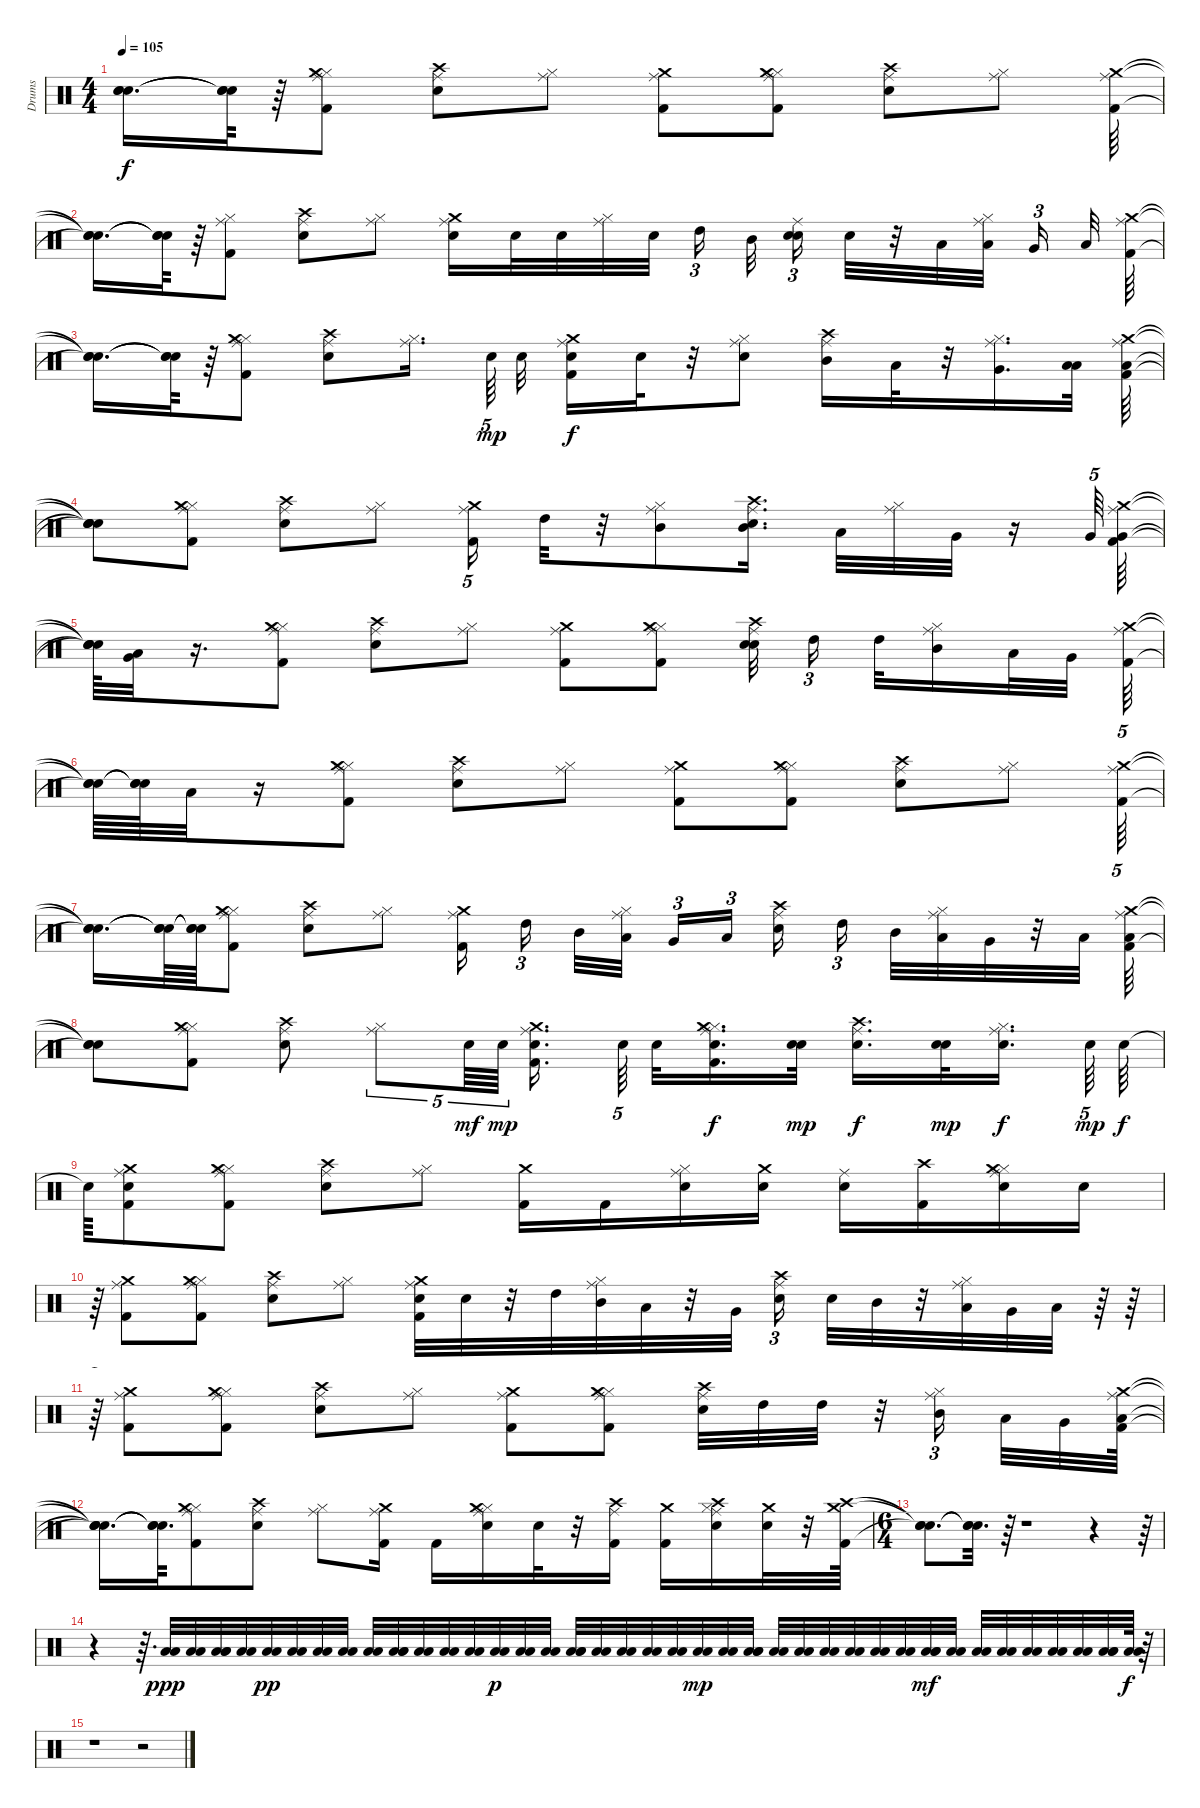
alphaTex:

\track ("Drums" "Drums") {instrument percussion}
\staff {score}
\articulation defaults
\ts (4 4)
\tempo 105
\clef neutral
\ks c
("Snare (hit)"{t} "Snare (hit)"{t} "Snare (hit)"{t}).16{d dy f} ("Snare (hit)"{t} "Snare (hit)"{t} "Snare (hit)"{t}).64 r.64 ("Ride (middle)" "Hi-Hat (closed)" "Crash medium (hit)" "Kick (hit) 2").8 ("Ride (middle)" "Crash high (hit)" "Electric Snare (hit)").8 ("Hi-Hat (closed)" "Ride (middle)").8 ("Ride (middle)" "Kick (hit) 2" "Crash medium (hit)").8 ("Hi-Hat (closed)" "Ride (middle)" "Kick (hit) 2" "Crash medium (hit)").8 ("Ride (middle)" "Electric Snare (hit)" "Crash high (hit)").8 ("Hi-Hat (closed)" "Ride (middle)").8 ("Ride (middle)" "Crash medium (hit)" "Kick (hit) 2").64 |
("Snare (hit)"{t} "Snare (hit)"{t} "Snare (hit)"{t}).16{d} ("Snare (hit)"{t} "Snare (hit)"{t} "Snare (hit)"{t}).64 r.64 ("Ride (middle)" "Hi-Hat (closed)" "Kick (hit) 2").8 ("Ride (middle)" "Crash high (hit)" "Electric Snare (hit)").8 ("Hi-Hat (closed)" "Ride (middle)").8 ("Ride (middle)" "Crash medium (hit)" "Electric Snare (hit)").16 "Electric Snare (hit)".32 "Electric Snare (hit)".32 ("Hi-Hat (closed)" "Ride (middle)").32 "Electric Snare (hit)".32 "High Tom (hit)".16{tu (3 2)} "Mid Tom (hit)".32 ("Electric Snare (hit)" "Ride (middle)" "Electric Snare (hit)").16{tu (3 2)} "Electric Snare (hit)".32 r.32 "Low Tom (hit)".32 ("Hi-Hat (closed)" "Ride (middle)" "Low Tom (hit)").32 "Very Low Tom (hit)".16{tu (3 2)} "Low Floor Tom (hit)".32 ("Ride (middle)" "Crash medium (hit)" "Kick (hit) 2").64 |
("Snare (hit)"{t} "Snare (hit)"{t} "Snare (hit)"{t}).16{d} ("Snare (hit)"{t} "Snare (hit)"{t} "Snare (hit)"{t}).64 r.64 ("Ride (middle)" "Hi-Hat (closed)" "Crash medium (hit)" "Kick (hit) 2").8 ("Ride (middle)" "Crash high (hit)" "Electric Snare (hit)").8 ("Hi-Hat (closed)" "Ride (middle)").16{d} "Electric Snare (hit)".64{tu (5 4) dy mp} "Electric Snare (hit)".32 ("Electric Snare (hit)" "Ride (middle)" "Kick (hit) 2" "Crash medium (hit)").16{dy f} "Electric Snare (hit)".32 r.32 ("Hi-Hat (closed)" "Ride (middle)" "Electric Snare (hit)").8 ("Mid Tom (hit)" "Ride (middle)" "Crash high (hit)").16 "Low Tom (hit)".32 r.32 ("Hi-Hat (closed)" "Ride (middle)" "Very Low Tom (hit)").16{d} ("Low Floor Tom (hit)" "Low Floor Tom (hit)").32 ("Low Floor Tom (hit)" "Ride (middle)" "Crash medium (hit)" "Kick (hit) 2").64 |
("Snare (hit)"{t} "Snare (hit)"{t} "Snare (hit)"{t} "Snare (hit)"{t}).8 ("Ride (middle)" "Hi-Hat (closed)" "Crash medium (hit)" "Kick (hit) 2").8 ("Ride (middle)" "Crash high (hit)" "Electric Snare (hit)").8 ("Hi-Hat (closed)" "Ride (middle)").8 ("Ride (middle)" "Kick (hit) 2" "Crash medium (hit)").16{tu (5 4)} "High Tom (hit)".32 r.32 ("Mid Tom (hit)" "Hi-Hat (closed)" "Ride (middle)").8 ("Mid Tom (hit)" "Ride (middle)" "Electric Snare (hit)" "Crash high (hit)").16{d} "Low Tom (hit)".32 ("Hi-Hat (closed)" "Ride (middle)").32 "Very Low Tom (hit)".32 r.16 "Very Low Tom (hit)".64{tu (5 4)} ("Very Low Tom (hit)" "Ride (middle)" "Crash medium (hit)" "Kick (hit) 2").64 |
("Snare (hit)"{t} "Snare (hit)"{t} "Snare (hit)"{t} "Snare (hit)"{t}).64 ("Low Floor Tom (hit)" "Very Low Tom (hit)").32 r.16{d} ("Ride (middle)" "Hi-Hat (closed)" "Crash medium (hit)" "Kick (hit) 2").8 ("Ride (middle)" "Crash high (hit)" "Electric Snare (hit)").8 ("Hi-Hat (closed)" "Ride (middle)").8 ("Ride (middle)" "Kick (hit) 2" "Crash medium (hit)").8 ("Hi-Hat (closed)" "Ride (middle)" "Kick (hit) 2" "Crash medium (hit)").8 ("Electric Snare (hit)" "Ride (middle)" "Electric Snare (hit)" "Crash high (hit)").32 "High Tom (hit)".16{tu (3 2)} "High Tom (hit)".32 ("Mid Tom (hit)" "Hi-Hat (closed)" "Ride (middle)").16 "Low Tom (hit)".32 "Very Low Tom (hit)".32 ("Ride (middle)" "Crash medium (hit)" "Kick (hit) 2").64{tu (5 4)} |
("Snare (hit)"{t} "Snare (hit)"{t} "Snare (hit)"{t}).64 ("Snare (hit)"{t} "Snare (hit)"{t} "Snare (hit)"{t}).64 "Low Floor Tom (hit)".32 r.16 ("Ride (middle)" "Hi-Hat (closed)" "Crash medium (hit)" "Kick (hit) 2").8 ("Ride (middle)" "Crash high (hit)" "Electric Snare (hit)").8 ("Hi-Hat (closed)" "Ride (middle)").8 ("Ride (middle)" "Kick (hit) 2" "Crash medium (hit)").8 ("Hi-Hat (closed)" "Ride (middle)" "Kick (hit) 2" "Crash medium (hit)").8 ("Ride (middle)" "Electric Snare (hit)" "Crash high (hit)").8 ("Hi-Hat (closed)" "Ride (middle)").8 ("Ride (middle)" "Crash medium (hit)" "Kick (hit) 2").64{tu (5 4)} |
("Snare (hit)"{t} "Snare (hit)"{t} "Snare (hit)"{t}).16{d} ("Snare (hit)"{t} "Snare (hit)"{t} "Snare (hit)"{t}).64 ("Snare (hit)"{t} "Snare (hit)"{t} "Snare (hit)"{t}).64 ("Ride (middle)" "Hi-Hat (closed)" "Crash medium (hit)" "Kick (hit) 2").8 ("Ride (middle)" "Crash high (hit)" "Electric Snare (hit)").8 ("Hi-Hat (closed)" "Ride (middle)").8 ("Ride (middle)" "Kick (hit) 2" "Crash medium (hit)").16 "High Tom (hit)".16{tu (3 2)} "Mid Tom (hit)".32 ("Hi-Hat (closed)" "Ride (middle)" "Low Tom (hit)").32 "Very Low Tom (hit)".16{tu (3 2)} "Low Floor Tom (hit)".16{tu (3 2)} ("Ride (middle)" "Electric Snare (hit)" "Crash high (hit)").16 "High Tom (hit)".16{tu (3 2)} "Mid Tom (hit)".32 ("Hi-Hat (closed)" "Ride (middle)" "Low Tom (hit)").32 "Very Low Tom (hit)".32 r.32 "Low Floor Tom (hit)".32 ("Ride (middle)" "Crash medium (hit)" "Kick (hit) 2" "Low Floor Tom (hit)").64 |
("Snare (hit)"{t} "Snare (hit)"{t} "Snare (hit)"{t}).8 ("Ride (middle)" "Hi-Hat (closed)" "Crash medium (hit)" "Kick (hit) 2").8 ("Ride (middle)" "Crash high (hit)" "Electric Snare (hit)").8 ("Hi-Hat (closed)" "Ride (middle)").8{tu (5 4)} "Electric Snare (hit)".64{tu (5 4) dy mf} "Electric Snare (hit)".64{tu (5 4) dy mp} ("Ride (middle)" "Kick (hit) 2" "Crash medium (hit)" "Electric Snare (hit)").16{d} "Electric Snare (hit)".64{tu (5 4)} "Electric Snare (hit)".32 ("Electric Snare (hit)" "Hi-Hat (closed)" "Ride (middle)" "Kick (hit) 2" "Crash medium (hit)").16{d dy f} ("Electric Snare (hit)" "Electric Snare (hit)").32{dy mp} ("Electric Snare (hit)" "Ride (middle)" "Crash high (hit)").16{d dy f} ("Electric Snare (hit)" "Electric Snare (hit)").32{dy mp} ("Electric Snare (hit)" "Hi-Hat (closed)" "Ride (middle)").16{d dy f} "Electric Snare (hit)".64{tu (5 4) dy mp} "Electric Snare (hit)".64{dy f} |
"Snare (hit)"{t}.64 ("Ride (middle)" "Crash medium (hit)" "Kick (hit) 2" "Electric Snare (hit)").8 ("Ride (middle)" "Hi-Hat (closed)" "Crash medium (hit)" "Kick (hit) 2").8 ("Ride (middle)" "Crash high (hit)" "Electric Snare (hit)").8 ("Hi-Hat (closed)" "Ride (middle)").8 ("Kick (hit) 2" "Crash medium (hit)").16 "Kick (hit) 2".16 ("Hi-Hat (closed)" "Ride (middle)" "Electric Snare (hit)").16 ("Crash medium (hit)" "Electric Snare (hit)").16 ("Ride (middle)" "Electric Snare (hit)").16 ("Crash high (hit)" "Kick (hit) 2").16 ("Hi-Hat (closed)" "Ride (middle)" "Electric Snare (hit)" "Crash medium (hit)").16 "Electric Snare (hit)".16 |
r.64 ("Ride (middle)" "Crash medium (hit)" "Kick (hit) 2").8 ("Ride (middle)" "Hi-Hat (closed)" "Crash medium (hit)" "Kick (hit) 2").8 ("Ride (middle)" "Crash high (hit)" "Electric Snare (hit)").8 ("Hi-Hat (closed)" "Ride (middle)").8 ("Ride (middle)" "Kick (hit) 2" "Crash medium (hit)" "Electric Snare (hit)").32 "Electric Snare (hit)".32 r.32 "High Tom (hit)".32 ("Hi-Hat (closed)" "Ride (middle)" "Mid Tom (hit)").32 "Low Tom (hit)".32 r.32 "Very Low Tom (hit)".32 ("Ride (middle)" "Electric Snare (hit)" "Crash high (hit)").16{tu (3 2)} "Electric Snare (hit)".32 "Mid Tom (hit)".32 r.32 ("Hi-Hat (closed)" "Ride (middle)" "Low Tom (hit)").32 "Very Low Tom (hit)".32 "Low Floor Tom (hit)".32 r.64 r.64 |
r.64{tu (5 4)} ("Ride (middle)" "Crash medium (hit)" "Kick (hit) 2").8 ("Ride (middle)" "Hi-Hat (closed)" "Crash medium (hit)" "Kick (hit) 2").8 ("Ride (middle)" "Crash high (hit)" "Electric Snare (hit)").8 ("Hi-Hat (closed)" "Ride (middle)").8 ("Ride (middle)" "Kick (hit) 2" "Crash medium (hit)").8 ("Hi-Hat (closed)" "Ride (middle)" "Kick (hit) 2" "Crash medium (hit)").8 ("Ride (middle)" "Electric Snare (hit)" "Crash high (hit)").32 "High Tom (hit)".32 "High Tom (hit)".32 r.32 ("Mid Tom (hit)" "Hi-Hat (closed)" "Ride (middle)").16{tu (3 2)} "Low Tom (hit)".32 "Very Low Tom (hit)".32 ("Ride (middle)" "Crash medium (hit)" "Kick (hit) 2" "Low Floor Tom (hit)").64 |
("Snare (hit)"{t} "Snare (hit)"{t} "Snare (hit)"{t} "Snare (hit)"{t}).16{d} ("Snare (hit)"{t} "Snare (hit)"{t} "Snare (hit)"{t}).64{d} ("Ride (middle)" "Hi-Hat (closed)" "Crash medium (hit)" "Kick (hit) 2").8 ("Ride (middle)" "Crash high (hit)" "Electric Snare (hit)").8 ("Hi-Hat (closed)" "Ride (middle)").8 ("Ride (middle)" "Kick (hit) 2" "Crash medium (hit)").16 "Kick (hit) 2".16 ("Hi-Hat (closed)" "Ride (middle)" "Crash medium (hit)" "Electric Snare (hit)").16 "Electric Snare (hit)".32 r.32 ("Ride (middle)" "Crash high (hit)" "Kick (hit) 2").16 ("Kick (hit) 2" "Crash medium (hit)").16 ("Electric Snare (hit)" "Crash high (hit)" "Hi-Hat (closed)" "Ride (middle)").16 ("Electric Snare (hit)" "Crash medium (hit)").32 r.32 ("Crash high (hit)" "Crash medium (hit)" "Kick (hit) 2").64 |
\ts (6 4)
("Snare (hit)"{t} "Snare (hit)"{t} "Snare (hit)"{t}).8{d} ("Snare (hit)"{t} "Snare (hit)"{t} "Snare (hit)"{t}).32{d} r.64 r.1 r.4 r.64 |
r.4 r.64{d} ("Low Floor Tom (hit)" "Low Floor Tom (hit)").32{dy ppp} ("Low Floor Tom (hit)" "Low Floor Tom (hit)").32 ("Low Floor Tom (hit)" "Low Floor Tom (hit)" "Low Floor Tom (hit)").32 ("Low Floor Tom (hit)" "Low Floor Tom (hit)").32 ("Low Floor Tom (hit)" "Low Floor Tom (hit)").32{dy pp} ("Low Floor Tom (hit)" "Low Floor Tom (hit)").32 ("Low Floor Tom (hit)" "Low Floor Tom (hit)").32 ("Low Floor Tom (hit)" "Low Floor Tom (hit)").32 ("Low Floor Tom (hit)" "Low Floor Tom (hit)").32 ("Low Floor Tom (hit)" "Low Floor Tom (hit)" "Low Floor Tom (hit)").32 ("Low Floor Tom (hit)" "Low Floor Tom (hit)").32 ("Low Floor Tom (hit)" "Low Floor Tom (hit)").32 ("Low Floor Tom (hit)" "Low Floor Tom (hit)").32 ("Low Floor Tom (hit)" "Low Floor Tom (hit)").32{dy p} ("Low Floor Tom (hit)" "Low Floor Tom (hit)").32 ("Low Floor Tom (hit)" "Low Floor Tom (hit)").32 ("Low Floor Tom (hit)" "Low Floor Tom (hit)" "Low Floor Tom (hit)").32 ("Low Floor Tom (hit)" "Low Floor Tom (hit)").32 ("Low Floor Tom (hit)" "Low Floor Tom (hit)").32 ("Low Floor Tom (hit)" "Low Floor Tom (hit)").32 ("Low Floor Tom (hit)" "Low Floor Tom (hit)").32 ("Low Floor Tom (hit)" "Low Floor Tom (hit)").32{dy mp} ("Low Floor Tom (hit)" "Low Floor Tom (hit)").32 ("Low Floor Tom (hit)" "Low Floor Tom (hit)" "Low Floor Tom (hit)").32 ("Low Floor Tom (hit)" "Low Floor Tom (hit)").32 ("Low Floor Tom (hit)" "Low Floor Tom (hit)").32 ("Low Floor Tom (hit)" "Low Floor Tom (hit)").32 ("Low Floor Tom (hit)" "Low Floor Tom (hit)").32 ("Low Floor Tom (hit)" "Low Floor Tom (hit)").32 ("Low Floor Tom (hit)" "Low Floor Tom (hit)").32 ("Low Floor Tom (hit)" "Low Floor Tom (hit)" "Low Floor Tom (hit)").32{dy mf} ("Low Floor Tom (hit)" "Low Floor Tom (hit)").32 ("Low Floor Tom (hit)" "Low Floor Tom (hit)").32 ("Low Floor Tom (hit)" "Low Floor Tom (hit)").32 ("Low Floor Tom (hit)" "Low Floor Tom (hit)").32 ("Low Floor Tom (hit)" "Low Floor Tom (hit)").32 ("Low Floor Tom (hit)" "Low Floor Tom (hit)").32 ("Low Floor Tom (hit)" "Low Floor Tom (hit)" "Low Floor Tom (hit)").32 ("Low Floor Tom (hit)" "Low Floor Tom (hit)").64{dy f} r.64 |
r.1 r.2
